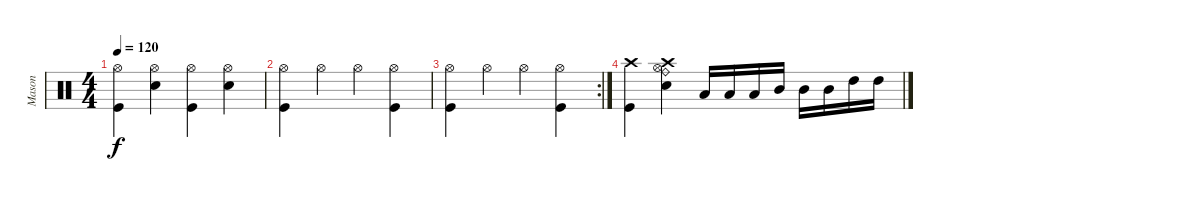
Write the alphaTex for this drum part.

\track ("Mason" "Mason") {instrument percussion}
\staff {score}
\articulation defaults
\ts (4 4)
\tempo 120
\clef neutral
\ks c
("Kick (hit)" "Hi-Hat (open)").4{dy f} ("Snare (hit) 2" "Hi-Hat (open)").4 ("Kick (hit)" "Hi-Hat (open)").4 ("Snare (hit) 2" "Hi-Hat (open)").4 |
("Kick (hit)" "Hi-Hat (open)").4 "Hi-Hat (open)".4 "Hi-Hat (open)".4 ("Kick (hit)" "Hi-Hat (open)").4 |
\rc 2
("Kick (hit)" "Hi-Hat (open)").4 "Hi-Hat (open)".4 "Hi-Hat (open)".4 ("Kick (hit)" "Hi-Hat (open)").4 |
("Kick (hit)" "Crash high (hit)").4 ("Snare (hit) 2" "Ride (bell)" "Hi-Hat (open)" "Crash high (hit)").4 "Low Tom (hit)".16 "Low Tom (hit)".16 "Low Tom (hit)".16 "Mid Tom (hit)".16 "Mid Tom (hit)".16 "Mid Tom (hit)".16 "High Tom (hit)".16 "High Tom (hit)".16
